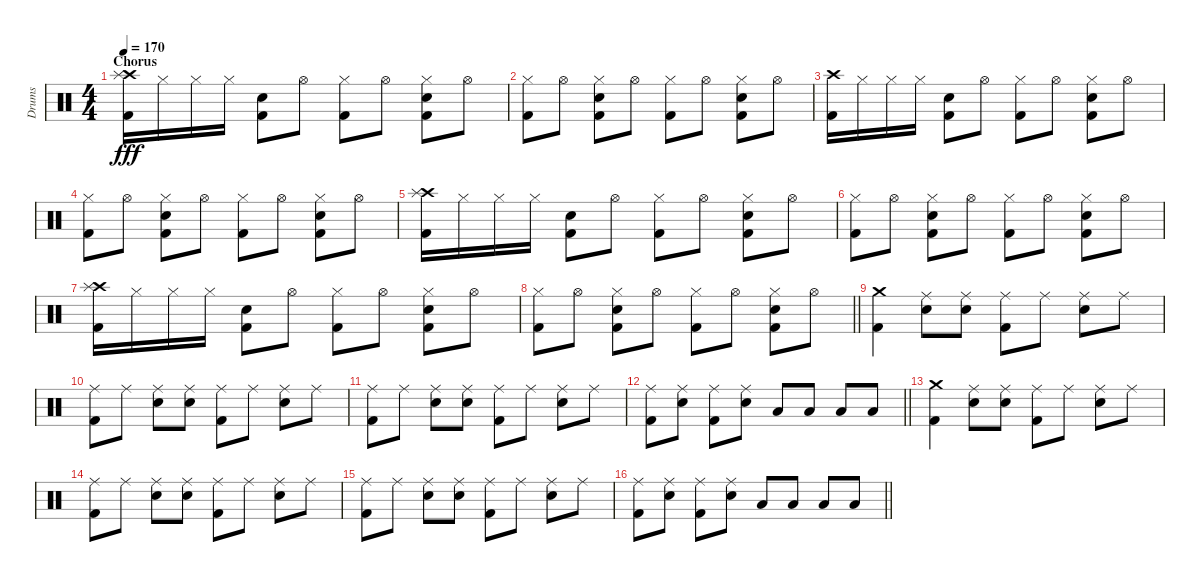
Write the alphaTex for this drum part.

\track ("Drums" "Drums") {instrument percussion}
\staff {score}
\articulation defaults
\ts (4 4)
\section ("" "Chorus")
\tempo 170
\clef neutral
\ks c
("Crash high (hit)" "Kick (hit) 2" "Splash (hit)").16{dy fff} "Hi-Hat (closed)".16 "Hi-Hat (closed)".16 "Hi-Hat (closed)".16 ("Electric Snare (hit)" "Kick (hit) 2").8 "Hi-Hat (open)".8 ("Hi-Hat (closed)" "Kick (hit) 2").8 "Hi-Hat (open)".8 ("Hi-Hat (closed)" "Electric Snare (hit)" "Kick (hit) 2").8 "Hi-Hat (open)".8 |
("Hi-Hat (closed)" "Kick (hit) 2").8 "Hi-Hat (open)".8 ("Hi-Hat (closed)" "Electric Snare (hit)" "Kick (hit) 2").8 "Hi-Hat (open)".8 ("Hi-Hat (closed)" "Kick (hit) 2").8 "Hi-Hat (open)".8 ("Hi-Hat (closed)" "Electric Snare (hit)" "Kick (hit) 2").8 "Hi-Hat (open)".8 |
("Crash high (hit)" "Kick (hit) 2").16 "Hi-Hat (closed)".16 "Hi-Hat (closed)".16 "Hi-Hat (closed)".16 ("Electric Snare (hit)" "Kick (hit) 2").8 "Hi-Hat (open)".8 ("Hi-Hat (closed)" "Kick (hit) 2").8 "Hi-Hat (open)".8 ("Hi-Hat (closed)" "Electric Snare (hit)" "Kick (hit) 2").8 "Hi-Hat (open)".8 |
("Hi-Hat (closed)" "Kick (hit) 2").8 "Hi-Hat (open)".8 ("Hi-Hat (closed)" "Electric Snare (hit)" "Kick (hit) 2").8 "Hi-Hat (open)".8 ("Hi-Hat (closed)" "Kick (hit) 2").8 "Hi-Hat (open)".8 ("Hi-Hat (closed)" "Electric Snare (hit)" "Kick (hit) 2").8 "Hi-Hat (open)".8 |
("Crash high (hit)" "Kick (hit) 2" "Splash (hit)").16 "Hi-Hat (closed)".16 "Hi-Hat (closed)".16 "Hi-Hat (closed)".16 ("Electric Snare (hit)" "Kick (hit) 2").8 "Hi-Hat (open)".8 ("Hi-Hat (closed)" "Kick (hit) 2").8 "Hi-Hat (open)".8 ("Hi-Hat (closed)" "Electric Snare (hit)" "Kick (hit) 2").8 "Hi-Hat (open)".8 |
("Hi-Hat (closed)" "Kick (hit) 2").8 "Hi-Hat (open)".8 ("Hi-Hat (closed)" "Electric Snare (hit)" "Kick (hit) 2").8 "Hi-Hat (open)".8 ("Hi-Hat (closed)" "Kick (hit) 2").8 "Hi-Hat (open)".8 ("Hi-Hat (closed)" "Electric Snare (hit)" "Kick (hit) 2").8 "Hi-Hat (open)".8 |
("Crash high (hit)" "Kick (hit) 2" "Splash (hit)").16 "Hi-Hat (closed)".16 "Hi-Hat (closed)".16 "Hi-Hat (closed)".16 ("Electric Snare (hit)" "Kick (hit) 2").8 "Hi-Hat (open)".8 ("Hi-Hat (closed)" "Kick (hit) 2").8 "Hi-Hat (open)".8 ("Hi-Hat (closed)" "Electric Snare (hit)" "Kick (hit) 2").8 "Hi-Hat (open)".8 |
\barLineRight lightlight
("Hi-Hat (closed)" "Kick (hit) 2").8 "Hi-Hat (open)".8 ("Hi-Hat (closed)" "Electric Snare (hit)" "Kick (hit) 2").8 "Hi-Hat (open)".8 ("Hi-Hat (closed)" "Kick (hit) 2").8 "Hi-Hat (open)".8 ("Hi-Hat (closed)" "Electric Snare (hit)" "Kick (hit) 2").8 "Hi-Hat (open)".8 |
("Crash medium (hit)" "Kick (hit) 2").4 ("Ride (middle)" "Electric Snare (hit)").8 ("Ride (middle)" "Electric Snare (hit)").8 ("Ride (middle)" "Kick (hit) 2").8 "Ride (middle)".8 ("Ride (middle)" "Electric Snare (hit)").8 "Ride (middle)".8 |
("Ride (middle)" "Kick (hit) 2").8 "Ride (middle)".8 ("Ride (middle)" "Electric Snare (hit)").8 ("Ride (middle)" "Electric Snare (hit)").8 ("Ride (middle)" "Kick (hit) 2").8 "Ride (middle)".8 ("Ride (middle)" "Electric Snare (hit)").8 "Ride (middle)".8 |
("Ride (middle)" "Kick (hit) 2").8 "Ride (middle)".8 ("Ride (middle)" "Electric Snare (hit)").8 ("Ride (middle)" "Electric Snare (hit)").8 ("Ride (middle)" "Kick (hit) 2").8 "Ride (middle)".8 ("Ride (middle)" "Electric Snare (hit)").8 "Ride (middle)".8 |
\barLineRight lightlight
("Ride (middle)" "Kick (hit) 2").8 ("Ride (middle)" "Electric Snare (hit)").8 ("Ride (middle)" "Kick (hit) 2").8 ("Ride (middle)" "Electric Snare (hit)").8 "Low Tom (hit)".8 "Low Tom (hit)".8 "Low Floor Tom (hit)".8 "Low Floor Tom (hit)".8 |
("Crash medium (hit)" "Kick (hit) 2").4 ("Ride (middle)" "Electric Snare (hit)").8 ("Ride (middle)" "Electric Snare (hit)").8 ("Ride (middle)" "Kick (hit) 2").8 "Ride (middle)".8 ("Ride (middle)" "Electric Snare (hit)").8 "Ride (middle)".8 |
("Ride (middle)" "Kick (hit) 2").8 "Ride (middle)".8 ("Ride (middle)" "Electric Snare (hit)").8 ("Ride (middle)" "Electric Snare (hit)").8 ("Ride (middle)" "Kick (hit) 2").8 "Ride (middle)".8 ("Ride (middle)" "Electric Snare (hit)").8 "Ride (middle)".8 |
("Ride (middle)" "Kick (hit) 2").8 "Ride (middle)".8 ("Ride (middle)" "Electric Snare (hit)").8 ("Ride (middle)" "Electric Snare (hit)").8 ("Ride (middle)" "Kick (hit) 2").8 "Ride (middle)".8 ("Ride (middle)" "Electric Snare (hit)").8 "Ride (middle)".8 |
\barLineRight lightlight
("Ride (middle)" "Kick (hit) 2").8 ("Ride (middle)" "Electric Snare (hit)").8 ("Ride (middle)" "Kick (hit) 2").8 ("Ride (middle)" "Electric Snare (hit)").8 "Low Tom (hit)".8 "Low Tom (hit)".8 "Low Floor Tom (hit)".8 "Low Floor Tom (hit)".8
